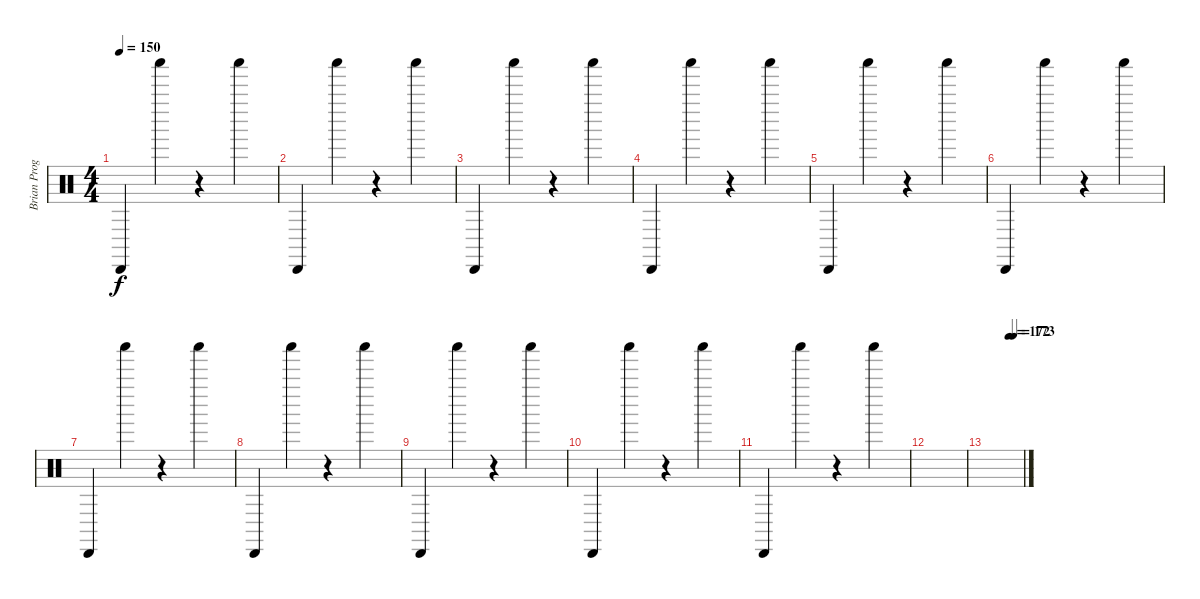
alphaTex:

\track ("Brian Programming" "Brian Prog") {instrument percussion}
\staff {score}
\articulation defaults
\ts (4 4)
\tempo 150
\clef neutral
\ks c "Cabasa (hit)".4{dy f} "Shaker (hit)".4
r.4 "Shaker (hit)".4 |
"Cabasa (hit)".4 "Shaker (hit)".4 r.4 "Shaker (hit)".4 |
"Cabasa (hit)".4 "Shaker (hit)".4 r.4 "Shaker (hit)".4 |
"Cabasa (hit)".4 "Shaker (hit)".4 r.4 "Shaker (hit)".4 |
"Cabasa (hit)".4 "Shaker (hit)".4 r.4 "Shaker (hit)".4 |
"Cabasa (hit)".4 "Shaker (hit)".4 r.4 "Shaker (hit)".4 |
"Cabasa (hit)".4 "Shaker (hit)".4 r.4 "Shaker (hit)".4 |
"Cabasa (hit)".4 "Shaker (hit)".4 r.4 "Shaker (hit)".4 |
"Cabasa (hit)".4 "Shaker (hit)".4 r.4 "Shaker (hit)".4 |
"Cabasa (hit)".4 "Shaker (hit)".4 r.4 "Shaker (hit)".4 |
"Cabasa (hit)".4 "Shaker (hit)".4 r.4 "Shaker (hit)".4 |
|
\tempo (172 0.625)
\tempo (173 0.75)
